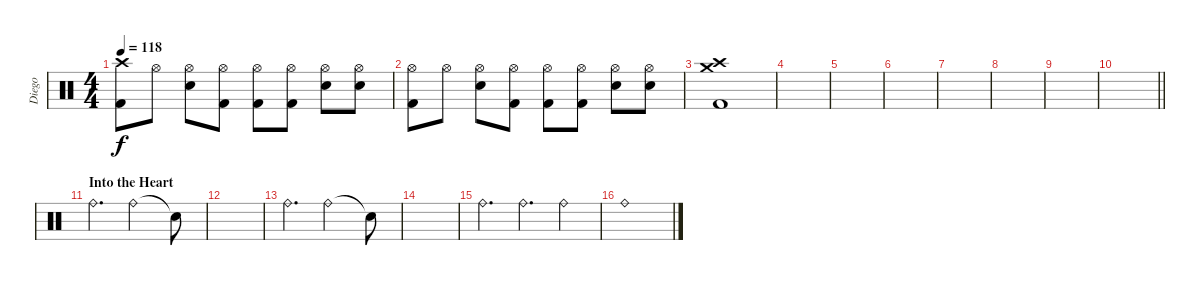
\track ("Diego" "Diego") {instrument percussion}
\staff {score}
\articulation defaults
\ts (4 4)
\tempo 118
\clef neutral
\ks c
("Crash high (hit)" "Kick (hit) 2").8{dy f} "Hi-Hat (open)".8 ("Hi-Hat (open)" "Snare (hit) 2").8 ("Hi-Hat (open)" "Kick (hit) 2").8 ("Hi-Hat (open)" "Kick (hit) 2").8 ("Hi-Hat (open)" "Kick (hit) 2").8 ("Hi-Hat (open)" "Snare (hit) 2").8 ("Hi-Hat (open)" "Snare (hit) 2").8 |
("Hi-Hat (open)" "Kick (hit) 2").8 "Hi-Hat (open)".8 ("Hi-Hat (open)" "Snare (hit) 2").8 ("Hi-Hat (open)" "Kick (hit) 2").8 ("Hi-Hat (open)" "Kick (hit) 2").8 ("Hi-Hat (open)" "Kick (hit) 2").8 ("Hi-Hat (open)" "Snare (hit) 2").8 ("Hi-Hat (open)" "Snare (hit) 2").8 |
("Crash high (hit)" "Crash medium (hit)" "Kick (hit) 2").1 |
|
|
|
|
|
|
\barLineRight lightlight
|
\section ("" "Into the Heart")
"Ride (bell)".4{d} "Ride (bell)".2 "Snare (hit)"{t}.8 |
|
"Ride (bell)".4{d} "Ride (bell)".2 "Snare (hit)"{t}.8 |
|
"Ride (bell)".4{d} "Ride (bell)".4{d} "Ride (bell)".4 |
"Ride (bell)".1
